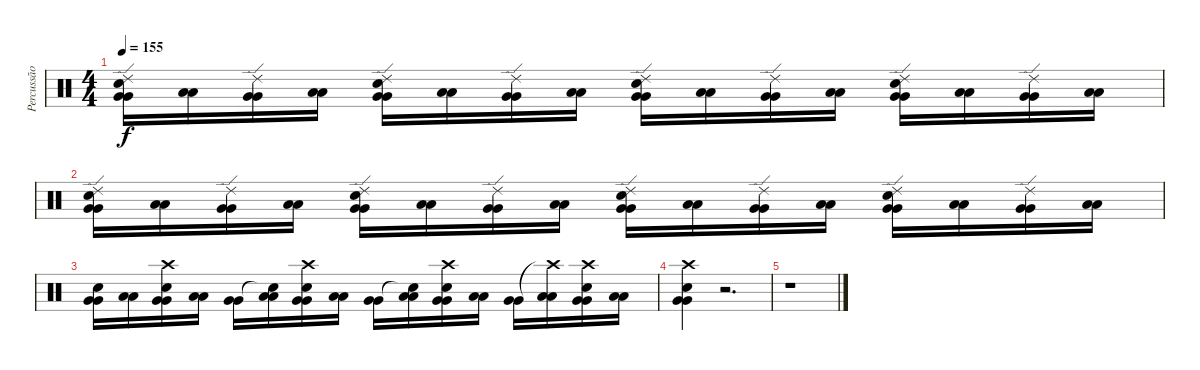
\track ("Percussão" "Percussão") {instrument percussion}
\staff {score}
\articulation defaults
\ts (4 4)
\tempo 155
\clef neutral
\ks c
("Electric Snare (hit)" "Ride (edge) 2" "Very Low Tom (hit)" "Very Low Tom (hit)").16{dy f} ("Low Floor Tom (hit)" "Low Floor Tom (hit)").16 ("Ride (edge) 2" "Very Low Tom (hit)" "Very Low Tom (hit)").16 ("Low Floor Tom (hit)" "Low Floor Tom (hit)").16 ("Electric Snare (hit)" "Ride (edge) 2" "Very Low Tom (hit)" "Very Low Tom (hit)").16 ("Low Floor Tom (hit)" "Low Floor Tom (hit)").16 ("Ride (edge) 2" "Very Low Tom (hit)" "Very Low Tom (hit)").16 ("Low Floor Tom (hit)" "Low Floor Tom (hit)").16 ("Electric Snare (hit)" "Ride (edge) 2" "Very Low Tom (hit)" "Very Low Tom (hit)").16 ("Low Floor Tom (hit)" "Low Floor Tom (hit)").16 ("Ride (edge) 2" "Very Low Tom (hit)" "Very Low Tom (hit)").16 ("Low Floor Tom (hit)" "Low Floor Tom (hit)").16 ("Electric Snare (hit)" "Ride (edge) 2" "Very Low Tom (hit)" "Very Low Tom (hit)").16 ("Low Floor Tom (hit)" "Low Floor Tom (hit)").16 ("Ride (edge) 2" "Very Low Tom (hit)" "Very Low Tom (hit)").16 ("Low Floor Tom (hit)" "Low Floor Tom (hit)").16 |
("Electric Snare (hit)" "Ride (edge) 2" "Very Low Tom (hit)" "Very Low Tom (hit)").16 ("Low Floor Tom (hit)" "Low Floor Tom (hit)").16 ("Ride (edge) 2" "Very Low Tom (hit)" "Very Low Tom (hit)").16 ("Low Floor Tom (hit)" "Low Floor Tom (hit)").16 ("Electric Snare (hit)" "Ride (edge) 2" "Very Low Tom (hit)" "Very Low Tom (hit)").16 ("Low Floor Tom (hit)" "Low Floor Tom (hit)").16 ("Ride (edge) 2" "Very Low Tom (hit)" "Very Low Tom (hit)").16 ("Low Floor Tom (hit)" "Low Floor Tom (hit)").16 ("Electric Snare (hit)" "Ride (edge) 2" "Very Low Tom (hit)" "Very Low Tom (hit)").16 ("Low Floor Tom (hit)" "Low Floor Tom (hit)").16 ("Ride (edge) 2" "Very Low Tom (hit)" "Very Low Tom (hit)").16 ("Low Floor Tom (hit)" "Low Floor Tom (hit)").16 ("Electric Snare (hit)" "Ride (edge) 2" "Very Low Tom (hit)" "Very Low Tom (hit)").16 ("Low Floor Tom (hit)" "Low Floor Tom (hit)").16 ("Ride (edge) 2" "Very Low Tom (hit)" "Very Low Tom (hit)").16 ("Low Floor Tom (hit)" "Low Floor Tom (hit)").16 |
("Electric Snare (hit)" "Very Low Tom (hit)" "Very Low Tom (hit)").16 ("Low Floor Tom (hit)" "Low Floor Tom (hit)").16 ("Crash high (hit)" "Electric Snare (hit)" "Very Low Tom (hit)" "Very Low Tom (hit)").16 ("Low Floor Tom (hit)" "Low Floor Tom (hit)").16 ("Very Low Tom (hit)" "Very Low Tom (hit)").16 ("Snare (hit)"{t} "Low Floor Tom (hit)" "Low Floor Tom (hit)").16 ("Crash high (hit)" "Electric Snare (hit)" "Very Low Tom (hit)" "Very Low Tom (hit)").16 ("Low Floor Tom (hit)" "Low Floor Tom (hit)").16 ("Very Low Tom (hit)" "Very Low Tom (hit)").16 ("Snare (hit)"{t} "Low Floor Tom (hit)" "Low Floor Tom (hit)").16 ("Crash high (hit)" "Electric Snare (hit)" "Very Low Tom (hit)" "Very Low Tom (hit)").16 ("Low Floor Tom (hit)" "Low Floor Tom (hit)").16 ("Very Low Tom (hit)" "Very Low Tom (hit)").16 ("Crash high (hit)"{t} "Low Floor Tom (hit)" "Low Floor Tom (hit)").16 ("Crash high (hit)" "Electric Snare (hit)" "Very Low Tom (hit)" "Very Low Tom (hit)").16 ("Low Floor Tom (hit)" "Low Floor Tom (hit)").16 |
("Crash high (hit)" "Electric Snare (hit)" "Very Low Tom (hit)" "Very Low Tom (hit)").4 r.2{d} |
r.1
